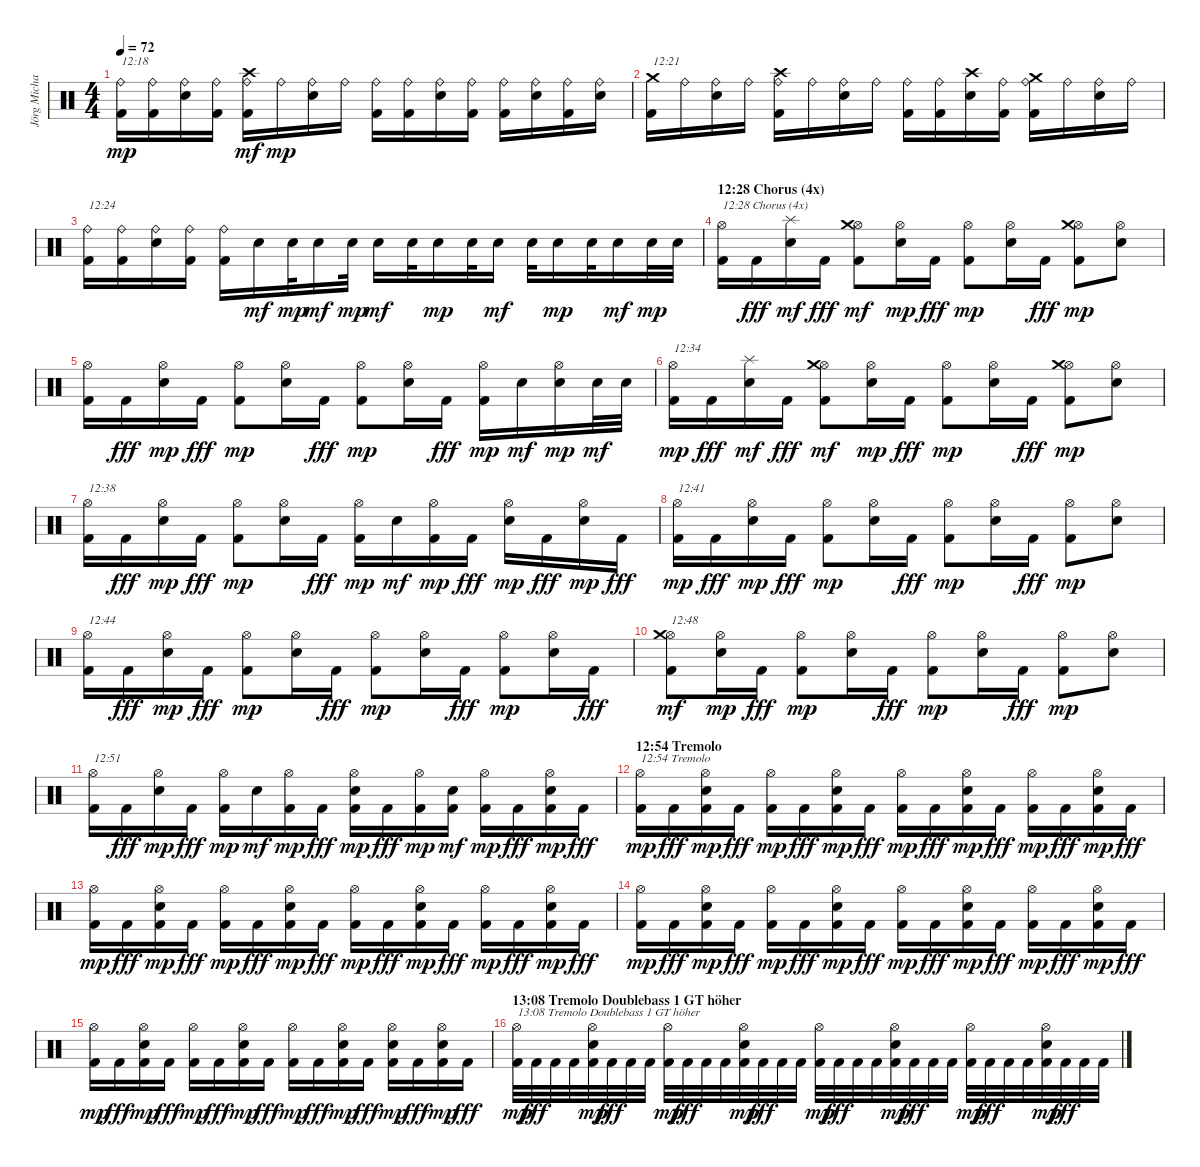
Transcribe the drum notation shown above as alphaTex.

\track ("Jörg Michael" "Jörg Micha") {instrument percussion}
\staff {score}
\articulation defaults
\ts (4 4)
\tempo 72
\clef neutral
\ks c
("Kick (hit) 2" "Ride (bell)").16{txt "12:18" dy mp} ("Kick (hit) 2" "Ride (bell)").16 ("Snare (hit) 2" "Ride (bell)").16 ("Kick (hit) 2" "Ride (bell)").16 ("Kick (hit) 2" "Ride (bell)" "Crash high (hit)").16{dy mf} "Ride (bell)".16{dy mp} ("Snare (hit) 2" "Ride (bell)").16 "Ride (bell)".16 ("Kick (hit) 2" "Ride (bell)").16 ("Kick (hit) 2" "Ride (bell)").16 ("Snare (hit) 2" "Ride (bell)").16 ("Kick (hit) 2" "Ride (bell)").16 ("Kick (hit) 2" "Ride (bell)").16 ("Snare (hit) 2" "Ride (bell)").16 ("Kick (hit) 2" "Ride (bell)").16 ("Snare (hit) 2" "Ride (bell)").16 |
("Kick (hit) 2" "Crash medium (hit)").16{txt "12:21"} "Ride (bell)".16 ("Snare (hit) 2" "Ride (bell)").16 "Ride (bell)".16 ("Kick (hit) 2" "Ride (bell)" "Crash high (hit)").16 "Ride (bell)".16 ("Snare (hit) 2" "Ride (bell)").16 "Ride (bell)".16 ("Kick (hit) 2" "Ride (bell)").16 ("Kick (hit) 2" "Ride (bell)").16 ("Snare (hit) 2" "Crash high (hit)").16 ("Kick (hit) 2" "Ride (bell)").16 ("Kick (hit) 2" "Ride (bell)" "Crash medium (hit)").16 "Ride (bell)".16 ("Snare (hit) 2" "Ride (bell)").16 "Ride (bell)".16 |
("Kick (hit) 2" "Ride (bell)").16{txt "12:24"} ("Kick (hit) 2" "Ride (bell)").16 ("Snare (hit) 2" "Ride (bell)").16 ("Kick (hit) 2" "Ride (bell)").16 ("Kick (hit) 2" "Ride (bell)").16 "Snare (hit) 2".16{dy mf} "Snare (hit) 2".32{dy mp} "Snare (hit) 2".16{dy mf} "Snare (hit) 2".32{dy mp} "Snare (hit) 2".16{dy mf} "Snare (hit) 2".32 "Snare (hit) 2".16{dy mp} "Snare (hit) 2".32 "Snare (hit) 2".16{dy mf} "Snare (hit) 2".32 "Snare (hit) 2".16{dy mp} "Snare (hit) 2".32 "Snare (hit) 2".16{dy mf} "Snare (hit) 2".32{dy mp} "Snare (hit) 2".32 |
\section ("" "12:28 Chorus (4x)")
("Kick (hit) 2" "Hi-Hat (open)").16{txt "12:28 Chorus (4x)"} "Kick (hit) 2".16{dy fff} ("Snare (hit) 2" "Splash (hit)").16{dy mf} "Kick (hit) 2".16{dy fff} ("Kick (hit) 2" "Hi-Hat (open)" "Crash medium (hit)").8{dy mf} ("Snare (hit) 2" "Hi-Hat (open)").16{dy mp} "Kick (hit) 2".16{dy fff} ("Kick (hit) 2" "Hi-Hat (open)").8{dy mp} ("Snare (hit) 2" "Hi-Hat (open)").16 "Kick (hit) 2".16{dy fff} ("Kick (hit) 2" "Hi-Hat (open)" "Crash medium (hit)").8{dy mp} ("Snare (hit) 2" "Hi-Hat (open)").8 |
("Kick (hit) 2" "Hi-Hat (open)").16 "Kick (hit) 2".16{dy fff} ("Snare (hit) 2" "Hi-Hat (open)").16{dy mp} "Kick (hit) 2".16{dy fff} ("Kick (hit) 2" "Hi-Hat (open)").8{dy mp} ("Snare (hit) 2" "Hi-Hat (open)").16 "Kick (hit) 2".16{dy fff} ("Kick (hit) 2" "Hi-Hat (open)").8{dy mp} ("Snare (hit) 2" "Hi-Hat (open)").16 "Kick (hit) 2".16{dy fff} ("Kick (hit) 2" "Hi-Hat (open)").16{dy mp} "Snare (hit) 2".16{dy mf} ("Snare (hit) 2" "Hi-Hat (open)").16{dy mp} "Snare (hit) 2".32{dy mf} "Snare (hit) 2".32 |
("Kick (hit) 2" "Hi-Hat (open)").16{txt "12:34" dy mp} "Kick (hit) 2".16{dy fff} ("Snare (hit) 2" "Splash (hit)").16{dy mf} "Kick (hit) 2".16{dy fff} ("Kick (hit) 2" "Hi-Hat (open)" "Crash medium (hit)").8{dy mf} ("Snare (hit) 2" "Hi-Hat (open)").16{dy mp} "Kick (hit) 2".16{dy fff} ("Kick (hit) 2" "Hi-Hat (open)").8{dy mp} ("Snare (hit) 2" "Hi-Hat (open)").16 "Kick (hit) 2".16{dy fff} ("Kick (hit) 2" "Hi-Hat (open)" "Crash medium (hit)").8{dy mp} ("Snare (hit) 2" "Hi-Hat (open)").8 |
("Kick (hit) 2" "Hi-Hat (open)").16{txt "12:38"} "Kick (hit) 2".16{dy fff} ("Snare (hit) 2" "Hi-Hat (open)").16{dy mp} "Kick (hit) 2".16{dy fff} ("Kick (hit) 2" "Hi-Hat (open)").8{dy mp} ("Snare (hit) 2" "Hi-Hat (open)").16 "Kick (hit) 2".16{dy fff} ("Kick (hit) 2" "Hi-Hat (open)").16{dy mp} "Snare (hit) 2".16{dy mf} ("Kick (hit) 2" "Hi-Hat (open)").16{dy mp} "Kick (hit) 2".16{dy fff} ("Snare (hit) 2" "Hi-Hat (open)").16{dy mp} "Kick (hit) 2".16{dy fff} ("Snare (hit) 2" "Hi-Hat (open)").16{dy mp} "Kick (hit) 2".16{dy fff} |
("Kick (hit) 2" "Hi-Hat (open)").16{txt "12:41" dy mp} "Kick (hit) 2".16{dy fff} ("Snare (hit) 2" "Hi-Hat (open)").16{dy mp} "Kick (hit) 2".16{dy fff} ("Kick (hit) 2" "Hi-Hat (open)").8{dy mp} ("Snare (hit) 2" "Hi-Hat (open)").16 "Kick (hit) 2".16{dy fff} ("Kick (hit) 2" "Hi-Hat (open)").8{dy mp} ("Snare (hit) 2" "Hi-Hat (open)").16 "Kick (hit) 2".16{dy fff} ("Kick (hit) 2" "Hi-Hat (open)").8{dy mp} ("Snare (hit) 2" "Hi-Hat (open)").8 |
("Kick (hit) 2" "Hi-Hat (open)").16{txt "12:44"} "Kick (hit) 2".16{dy fff} ("Snare (hit) 2" "Hi-Hat (open)").16{dy mp} "Kick (hit) 2".16{dy fff} ("Kick (hit) 2" "Hi-Hat (open)").8{dy mp} ("Snare (hit) 2" "Hi-Hat (open)").16 "Kick (hit) 2".16{dy fff} ("Kick (hit) 2" "Hi-Hat (open)").8{dy mp} ("Snare (hit) 2" "Hi-Hat (open)").16 "Kick (hit) 2".16{dy fff} ("Kick (hit) 2" "Hi-Hat (open)").8{dy mp} ("Snare (hit) 2" "Hi-Hat (open)").16 "Kick (hit) 2".16{dy fff} |
("Kick (hit) 2" "Hi-Hat (open)" "Crash medium (hit)").8{txt "12:48" dy mf} ("Snare (hit) 2" "Hi-Hat (open)").16{dy mp} "Kick (hit) 2".16{dy fff} ("Kick (hit) 2" "Hi-Hat (open)").8{dy mp} ("Snare (hit) 2" "Hi-Hat (open)").16 "Kick (hit) 2".16{dy fff} ("Kick (hit) 2" "Hi-Hat (open)").8{dy mp} ("Snare (hit) 2" "Hi-Hat (open)").16 "Kick (hit) 2".16{dy fff} ("Kick (hit) 2" "Hi-Hat (open)").8{dy mp} ("Snare (hit) 2" "Hi-Hat (open)").8 |
("Kick (hit) 2" "Hi-Hat (open)").16{txt "12:51"} "Kick (hit) 2".16{dy fff} ("Snare (hit) 2" "Hi-Hat (open)").16{dy mp} "Kick (hit) 2".16{dy fff} ("Kick (hit) 2" "Hi-Hat (open)").16{dy mp} "Snare (hit) 2".16{dy mf} ("Kick (hit) 2" "Hi-Hat (open)").16{dy mp} "Kick (hit) 2".16{dy fff} ("Kick (hit) 2" "Snare (hit) 2" "Hi-Hat (open)").16{dy mp} "Kick (hit) 2".16{dy fff} ("Kick (hit) 2" "Hi-Hat (open)").16{dy mp} ("Kick (hit) 2" "Snare (hit) 2").16{dy mf} ("Kick (hit) 2" "Hi-Hat (open)").16{dy mp} "Kick (hit) 2".16{dy fff} ("Kick (hit) 2" "Snare (hit) 2" "Hi-Hat (open)").16{dy mp} "Kick (hit) 2".16{dy fff} |
\section ("" "12:54 Tremolo")
("Kick (hit) 2" "Hi-Hat (open)").16{txt "12:54 Tremolo" dy mp} "Kick (hit) 2".16{dy fff} ("Kick (hit) 2" "Snare (hit) 2" "Hi-Hat (open)").16{dy mp} "Kick (hit) 2".16{dy fff} ("Kick (hit) 2" "Hi-Hat (open)").16{dy mp} "Kick (hit) 2".16{dy fff} ("Kick (hit) 2" "Snare (hit) 2" "Hi-Hat (open)").16{dy mp} "Kick (hit) 2".16{dy fff} ("Kick (hit) 2" "Hi-Hat (open)").16{dy mp} "Kick (hit) 2".16{dy fff} ("Kick (hit) 2" "Snare (hit) 2" "Hi-Hat (open)").16{dy mp} "Kick (hit) 2".16{dy fff} ("Kick (hit) 2" "Hi-Hat (open)").16{dy mp} "Kick (hit) 2".16{dy fff} ("Kick (hit) 2" "Snare (hit) 2" "Hi-Hat (open)").16{dy mp} "Kick (hit) 2".16{dy fff} |
("Kick (hit) 2" "Hi-Hat (open)").16{dy mp} "Kick (hit) 2".16{dy fff} ("Kick (hit) 2" "Snare (hit) 2" "Hi-Hat (open)").16{dy mp} "Kick (hit) 2".16{dy fff} ("Kick (hit) 2" "Hi-Hat (open)").16{dy mp} "Kick (hit) 2".16{dy fff} ("Kick (hit) 2" "Snare (hit) 2" "Hi-Hat (open)").16{dy mp} "Kick (hit) 2".16{dy fff} ("Kick (hit) 2" "Hi-Hat (open)").16{dy mp} "Kick (hit) 2".16{dy fff} ("Kick (hit) 2" "Snare (hit) 2" "Hi-Hat (open)").16{dy mp} "Kick (hit) 2".16{dy fff} ("Kick (hit) 2" "Hi-Hat (open)").16{dy mp} "Kick (hit) 2".16{dy fff} ("Kick (hit) 2" "Snare (hit) 2" "Hi-Hat (open)").16{dy mp} "Kick (hit) 2".16{dy fff} |
("Kick (hit) 2" "Hi-Hat (open)").16{dy mp} "Kick (hit) 2".16{dy fff} ("Kick (hit) 2" "Snare (hit) 2" "Hi-Hat (open)").16{dy mp} "Kick (hit) 2".16{dy fff} ("Kick (hit) 2" "Hi-Hat (open)").16{dy mp} "Kick (hit) 2".16{dy fff} ("Kick (hit) 2" "Snare (hit) 2" "Hi-Hat (open)").16{dy mp} "Kick (hit) 2".16{dy fff} ("Kick (hit) 2" "Hi-Hat (open)").16{dy mp} "Kick (hit) 2".16{dy fff} ("Kick (hit) 2" "Snare (hit) 2" "Hi-Hat (open)").16{dy mp} "Kick (hit) 2".16{dy fff} ("Kick (hit) 2" "Hi-Hat (open)").16{dy mp} "Kick (hit) 2".16{dy fff} ("Kick (hit) 2" "Snare (hit) 2" "Hi-Hat (open)").16{dy mp} "Kick (hit) 2".16{dy fff} |
("Kick (hit) 2" "Hi-Hat (open)").16{dy mp} "Kick (hit) 2".16{dy fff} ("Kick (hit) 2" "Snare (hit) 2" "Hi-Hat (open)").16{dy mp} "Kick (hit) 2".16{dy fff} ("Kick (hit) 2" "Hi-Hat (open)").16{dy mp} "Kick (hit) 2".16{dy fff} ("Kick (hit) 2" "Snare (hit) 2" "Hi-Hat (open)").16{dy mp} "Kick (hit) 2".16{dy fff} ("Kick (hit) 2" "Hi-Hat (open)").16{dy mp} "Kick (hit) 2".16{dy fff} ("Kick (hit) 2" "Snare (hit) 2" "Hi-Hat (open)").16{dy mp} "Kick (hit) 2".16{dy fff} ("Kick (hit) 2" "Snare (hit) 2" "Hi-Hat (open)").16{dy mp} "Kick (hit) 2".16{dy fff} ("Kick (hit) 2" "Snare (hit) 2" "Hi-Hat (open)").16{dy mp} "Kick (hit) 2".16{dy fff} |
\section ("" "13:08 Tremolo Doublebass 1 GT höher")
("Kick (hit) 2" "Hi-Hat (open)").32{txt "13:08 Tremolo Doublebass 1 GT höher" dy mp} "Kick (hit) 2".32{dy fff} "Kick (hit) 2".32 "Kick (hit) 2".32 ("Kick (hit) 2" "Snare (hit) 2" "Hi-Hat (open)").32{dy mp} "Kick (hit) 2".32{dy fff} "Kick (hit) 2".32 "Kick (hit) 2".32 ("Kick (hit) 2" "Hi-Hat (open)").32{dy mp} "Kick (hit) 2".32{dy fff} "Kick (hit) 2".32 "Kick (hit) 2".32 ("Kick (hit) 2" "Snare (hit) 2" "Hi-Hat (open)").32{dy mp} "Kick (hit) 2".32{dy fff} "Kick (hit) 2".32 "Kick (hit) 2".32 ("Kick (hit) 2" "Hi-Hat (open)").32{dy mp} "Kick (hit) 2".32{dy fff} "Kick (hit) 2".32 "Kick (hit) 2".32 ("Kick (hit) 2" "Snare (hit) 2" "Hi-Hat (open)").32{dy mp} "Kick (hit) 2".32{dy fff} "Kick (hit) 2".32 "Kick (hit) 2".32 ("Kick (hit) 2" "Hi-Hat (open)").32{dy mp} "Kick (hit) 2".32{dy fff} "Kick (hit) 2".32 "Kick (hit) 2".32 ("Kick (hit) 2" "Snare (hit) 2" "Hi-Hat (open)").32{dy mp} "Kick (hit) 2".32{dy fff} "Kick (hit) 2".32 "Kick (hit) 2".32
